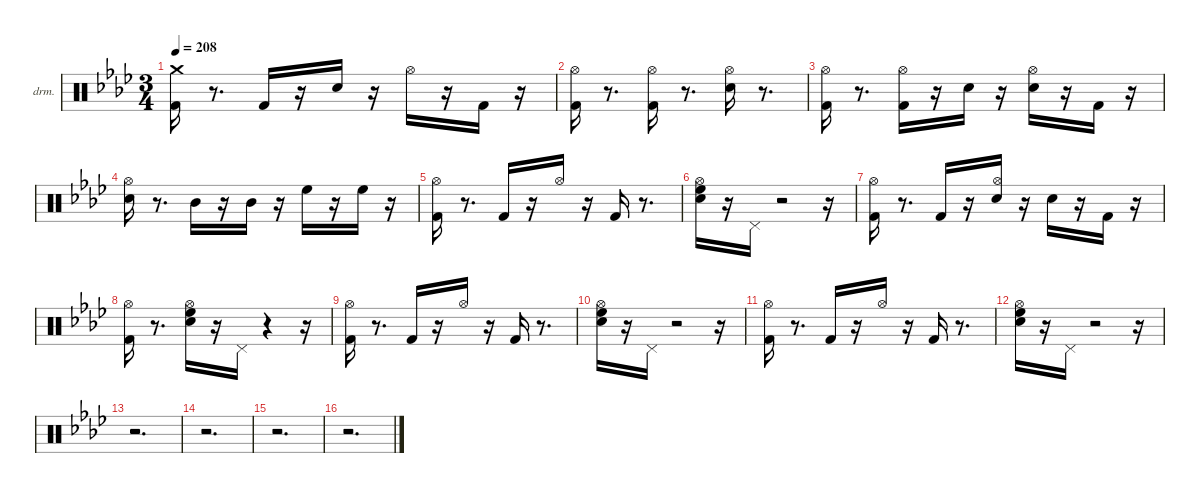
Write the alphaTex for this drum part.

\hideDynamics
\bracketExtendMode nobrackets
\firstSystemTrackNameOrientation horizontal
\otherSystemsTrackNameOrientation horizontal
\track ("EZdrummer 3" "drm.") {instrument percussion}
\staff {score}
\articulation defaults
\ts (3 4)
\tempo 208
\clef neutral
\ks fminor
("Kick (hit) 2"{acc forcenatural} "Crash medium (hit)"{acc forcenatural}).16{dy fff beam Down} r.8{d beam Down} "Kick (hit) 2"{acc forcenatural}.16{dy f beam Up} r.16{beam Up} "Snare (hit) 2"{acc forcenatural}.16{dy ff beam Down} r.16{beam Down} "Hi-Hat (open)"{acc b}.16{dy f beam Down} r.16{beam Down} "Kick (hit) 2"{acc forcenatural}.16{dy ff beam Up} r.16{beam Up} |
("Kick (hit) 2"{acc forcenatural} "Hi-Hat (open)"{acc b}).16{beam Down} r.8{d beam Down} ("Kick (hit) 2"{acc forcenatural} "Hi-Hat (open)"{acc b}).16{beam Down} r.8{d beam Down} ("Snare (hit) 2"{acc forcenatural} "Hi-Hat (open)"{acc b}).16{beam Down} r.8{d beam Down} |
("Kick (hit) 2"{acc forcenatural} "Hi-Hat (open)"{acc b}).16{beam Down} r.8{d beam Down} ("Kick (hit) 2"{acc forcenatural} "Hi-Hat (open)"{acc b}).16{dy f beam Down} r.16{beam Down} "Snare (hit) 2"{acc forcenatural}.16{beam Down} r.16{beam Down} ("Snare (hit) 2"{acc forcenatural} "Hi-Hat (open)"{acc b}).16{dy mp beam Down} r.16{beam Down} "Kick (hit) 2"{acc forcenatural}.16{dy ff beam Up} r.16{beam Up} |
("Snare (hit) 2"{acc forcenatural} "Hi-Hat (open)"{acc b}).16{beam Down} r.8{d beam Down} "Mid Tom (hit)"{acc forcenatural}.16{dy f beam Down} r.16{beam Down} "Mid Tom (hit)"{acc forcenatural}.16{dy mf beam Down} r.16{beam Down} "High Floor Tom (hit)"{acc forcenatural}.16{dy f beam Down} r.16{beam Down} "High Floor Tom (hit)"{acc forcenatural}.16{dy mf beam Down} r.16{beam Down} |
("Kick (hit) 2"{acc forcenatural} "Hi-Hat (open)"{acc b}).16{dy fff beam Down} r.8{d beam Down} "Kick (hit) 2"{acc forcenatural}.16{dy ff beam Up} r.16{beam Up} "Hi-Hat (open)"{acc b}.16{dy mf beam Down} r.16{beam Down} "Kick (hit) 2"{acc forcenatural}.16{dy ff beam Up} r.8{d beam Up} |
("Snare (hit) 2"{acc forcenatural} "Hi-Hat (open)"{acc b} "High Floor Tom (hit)"{acc forcenatural}).16{beam Down} r.16{beam Down} "Pedal Hi-Hat (hit)"{acc b}.16{beam Up} r.2{beam Up} r.16{beam Up} |
("Kick (hit) 2"{acc forcenatural} "Hi-Hat (open)"{acc b}).16{beam Down} r.8{d beam Down} "Kick (hit) 2"{acc forcenatural}.16{dy f beam Up} r.16{beam Up} ("Snare (hit) 2"{acc forcenatural} "Hi-Hat (open)"{acc b}).16{dy ff beam Down} r.16{beam Down} "Snare (hit) 2"{acc forcenatural}.16{dy pp beam Down} r.16{beam Down} "Kick (hit) 2"{acc forcenatural}.16{dy mp beam Up} r.16{beam Up} |
("Kick (hit) 2"{acc forcenatural} "Hi-Hat (open)"{acc b}).16{dy fff beam Down} r.8{d beam Down} ("Snare (hit) 2"{acc forcenatural} "Hi-Hat (open)"{acc b} "High Floor Tom (hit)"{acc forcenatural}).16{dy ff beam Down} r.16{beam Down} "Pedal Hi-Hat (hit)"{acc b}.16{beam Up} r.4{beam Up} r.16{beam Up} |
("Kick (hit) 2"{acc forcenatural} "Hi-Hat (open)"{acc b}).16{dy fff beam Down} r.8{d beam Down} "Kick (hit) 2"{acc forcenatural}.16{dy ff beam Up} r.16{beam Up} "Hi-Hat (open)"{acc b}.16{dy mf beam Down} r.16{beam Down} "Kick (hit) 2"{acc forcenatural}.16{dy ff beam Up} r.8{d beam Up} |
("High Floor Tom (hit)"{acc forcenatural} "Snare (hit) 2"{acc forcenatural} "Hi-Hat (open)"{acc b}).16{beam Down} r.16{beam Down} "Pedal Hi-Hat (hit)"{acc b}.16{beam Up} r.2{beam Up} r.16{beam Up} |
("Kick (hit) 2"{acc forcenatural} "Hi-Hat (open)"{acc b}).16{dy fff beam Down} r.8{d beam Down} "Kick (hit) 2"{acc forcenatural}.16{dy ff beam Up} r.16{beam Up} "Hi-Hat (open)"{acc b}.16{dy mf beam Down} r.16{beam Down} "Kick (hit) 2"{acc forcenatural}.16{dy ff beam Up} r.8{d beam Up} |
("High Floor Tom (hit)"{acc forcenatural} "Snare (hit) 2"{acc forcenatural} "Hi-Hat (open)"{acc b}).16{beam Down} r.16{beam Down} "Pedal Hi-Hat (hit)"{acc b}.16{beam Up} r.2{beam Up} r.16{beam Up} |
r.2{d beam Down} |
r.2{d beam Down} |
r.2{d beam Down} |
r.2{d beam Down}
